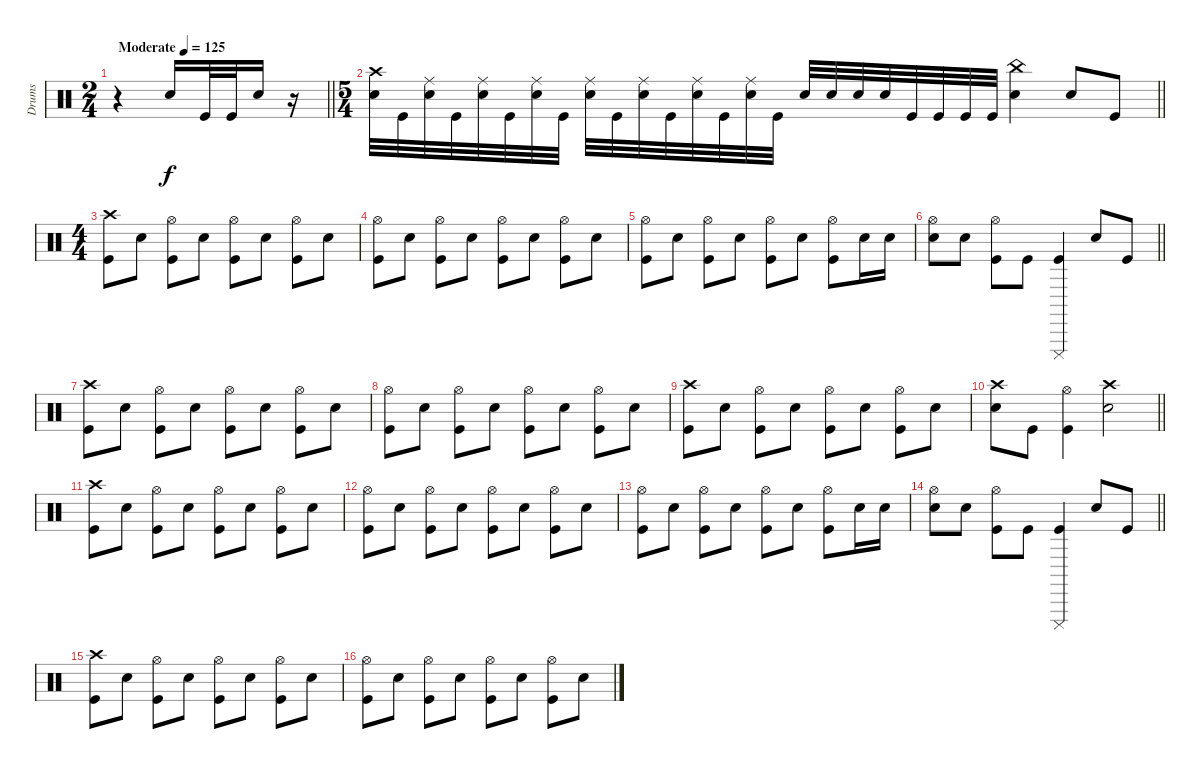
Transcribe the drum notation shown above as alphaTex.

\track ("Drums" "Drums") {instrument percussion}
\staff
\articulation defaults
\ts (2 4)
\tempo (125 "Moderate")
\clef neutral
\barLineRight lightlight
\ks c
r.4{dy f} "Electric Snare (hit)".16 "Kick (hit)".32 "Kick (hit)".32 "Electric Snare (hit)".16 r.16 |
\ts (5 4)
\barLineRight lightlight
("Crash high (hit)" "Electric Snare (hit)").32 "Kick (hit)".32 ("Ride (middle)" "Electric Snare (hit)").32 "Kick (hit)".32 ("Ride (middle)" "Electric Snare (hit)").32 "Kick (hit)".32 ("Ride (middle)" "Electric Snare (hit)").32 "Kick (hit)".32 ("Ride (middle)" "Electric Snare (hit)").32 "Kick (hit)".32 ("Ride (middle)" "Electric Snare (hit)").32 "Kick (hit)".32 ("Ride (middle)" "Electric Snare (hit)").32 "Kick (hit)".32 ("Ride (middle)" "Electric Snare (hit)").32 "Kick (hit)".32 "Electric Snare (hit)".32 "Electric Snare (hit)".32 "Electric Snare (hit)".32 "Electric Snare (hit)".32 "Kick (hit)".32 "Kick (hit)".32 "Kick (hit)".32 "Kick (hit)".32 ("China (hit)" "Electric Snare (hit)").4 "Electric Snare (hit)".8 "Kick (hit)".8 |
\ts (4 4)
("Crash high (hit)" "Kick (hit)").8 "Electric Snare (hit)".8 ("Hi-Hat (open)" "Kick (hit)").8 "Electric Snare (hit)".8 ("Hi-Hat (open)" "Kick (hit)").8 "Electric Snare (hit)".8 ("Hi-Hat (open)" "Kick (hit)").8 "Electric Snare (hit)".8 |
("Hi-Hat (open)" "Kick (hit)").8 "Electric Snare (hit)".8 ("Hi-Hat (open)" "Kick (hit)").8 "Electric Snare (hit)".8 ("Hi-Hat (open)" "Kick (hit)").8 "Electric Snare (hit)".8 ("Hi-Hat (open)" "Kick (hit)").8 "Electric Snare (hit)".8 |
("Hi-Hat (open)" "Kick (hit)").8 "Electric Snare (hit)".8 ("Hi-Hat (open)" "Kick (hit)").8 "Electric Snare (hit)".8 ("Hi-Hat (open)" "Kick (hit)").8 "Electric Snare (hit)".8 ("Hi-Hat (open)" "Kick (hit)").8 "Electric Snare (hit)".16 "Electric Snare (hit)".16 |
\barLineRight lightlight
("Hi-Hat (open)" "Electric Snare (hit)").8 "Electric Snare (hit)".8 ("Hi-Hat (open)" "Kick (hit)").8 "Kick (hit)".8 ("Cuica (mute)" "Kick (hit)").4 "Electric Snare (hit)".8 "Kick (hit)".8 |
("Crash high (hit)" "Kick (hit)").8 "Electric Snare (hit)".8 ("Hi-Hat (open)" "Kick (hit)").8 "Electric Snare (hit)".8 ("Hi-Hat (open)" "Kick (hit)").8 "Electric Snare (hit)".8 ("Hi-Hat (open)" "Kick (hit)").8 "Electric Snare (hit)".8 |
("Hi-Hat (open)" "Kick (hit)").8 "Electric Snare (hit)".8 ("Hi-Hat (open)" "Kick (hit)").8 "Electric Snare (hit)".8 ("Hi-Hat (open)" "Kick (hit)").8 "Electric Snare (hit)".8 ("Hi-Hat (open)" "Kick (hit)").8 "Electric Snare (hit)".8 |
("Crash high (hit)" "Kick (hit)").8 "Electric Snare (hit)".8 ("Hi-Hat (open)" "Kick (hit)").8 "Electric Snare (hit)".8 ("Hi-Hat (open)" "Kick (hit)").8 "Electric Snare (hit)".8 ("Hi-Hat (open)" "Kick (hit)").8 "Electric Snare (hit)".8 |
\barLineRight lightlight
("Crash high (hit)" "Electric Snare (hit)").8 "Kick (hit)".8 ("Hi-Hat (open)" "Kick (hit)").4 ("Crash high (hit)" "Electric Snare (hit)").2 |
("Crash high (hit)" "Kick (hit)").8 "Electric Snare (hit)".8 ("Hi-Hat (open)" "Kick (hit)").8 "Electric Snare (hit)".8 ("Hi-Hat (open)" "Kick (hit)").8 "Electric Snare (hit)".8 ("Hi-Hat (open)" "Kick (hit)").8 "Electric Snare (hit)".8 |
("Hi-Hat (open)" "Kick (hit)").8 "Electric Snare (hit)".8 ("Hi-Hat (open)" "Kick (hit)").8 "Electric Snare (hit)".8 ("Hi-Hat (open)" "Kick (hit)").8 "Electric Snare (hit)".8 ("Hi-Hat (open)" "Kick (hit)").8 "Electric Snare (hit)".8 |
("Hi-Hat (open)" "Kick (hit)").8 "Electric Snare (hit)".8 ("Hi-Hat (open)" "Kick (hit)").8 "Electric Snare (hit)".8 ("Hi-Hat (open)" "Kick (hit)").8 "Electric Snare (hit)".8 ("Hi-Hat (open)" "Kick (hit)").8 "Electric Snare (hit)".16 "Electric Snare (hit)".16 |
\barLineRight lightlight
("Hi-Hat (open)" "Electric Snare (hit)").8 "Electric Snare (hit)".8 ("Hi-Hat (open)" "Kick (hit)").8 "Kick (hit)".8 ("Cuica (mute)" "Kick (hit)").4 "Electric Snare (hit)".8 "Kick (hit)".8 |
("Crash high (hit)" "Kick (hit)").8 "Electric Snare (hit)".8 ("Hi-Hat (open)" "Kick (hit)").8 "Electric Snare (hit)".8 ("Hi-Hat (open)" "Kick (hit)").8 "Electric Snare (hit)".8 ("Hi-Hat (open)" "Kick (hit)").8 "Electric Snare (hit)".8 |
("Hi-Hat (open)" "Kick (hit)").8 "Electric Snare (hit)".8 ("Hi-Hat (open)" "Kick (hit)").8 "Electric Snare (hit)".8 ("Hi-Hat (open)" "Kick (hit)").8 "Electric Snare (hit)".8 ("Hi-Hat (open)" "Kick (hit)").8 "Electric Snare (hit)".8
